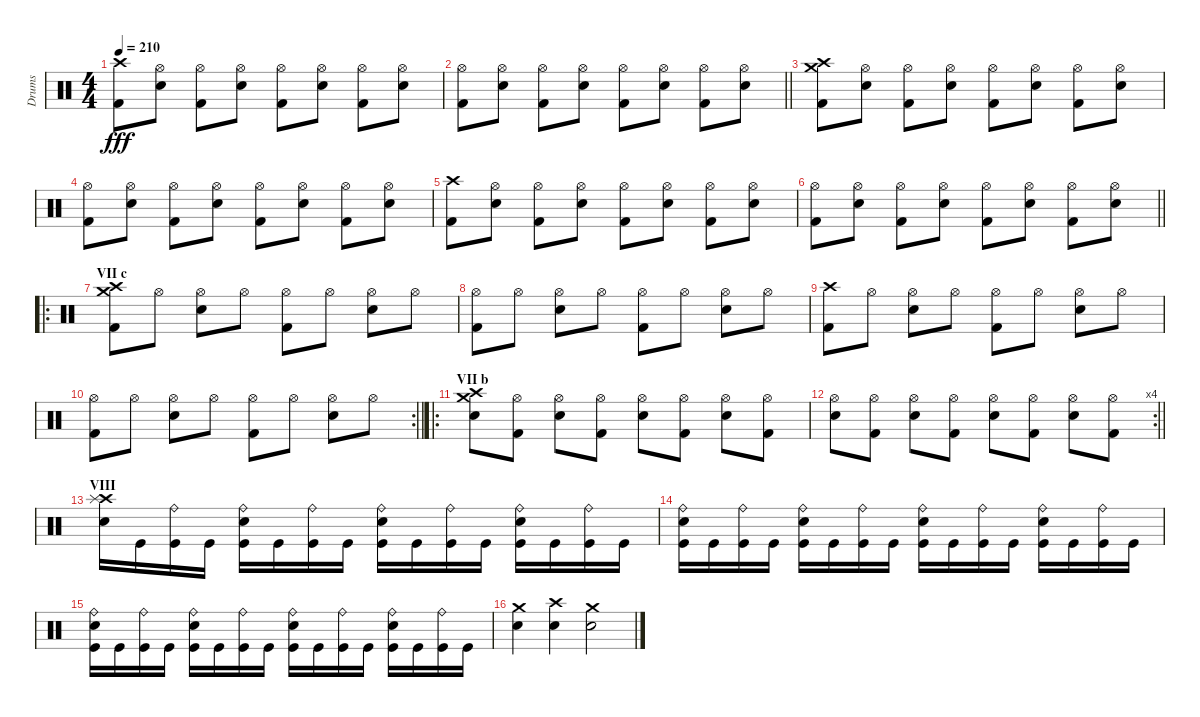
\track ("Drums" "Drums") {instrument percussion}
\staff {score}
\articulation defaults
\ts (4 4)
\tempo 210
\clef neutral
\ks c
("Crash high (hit)" "Kick (hit) 2").8{dy fff} ("Hi-Hat (open)" "Snare (hit) 2").8 ("Hi-Hat (open)" "Kick (hit) 2").8 ("Hi-Hat (open)" "Snare (hit) 2").8 ("Hi-Hat (open)" "Kick (hit) 2").8 ("Hi-Hat (open)" "Snare (hit) 2").8 ("Hi-Hat (open)" "Kick (hit) 2").8 ("Hi-Hat (open)" "Snare (hit) 2").8 |
\barLineRight lightlight
("Hi-Hat (open)" "Kick (hit) 2").8 ("Hi-Hat (open)" "Snare (hit) 2").8 ("Hi-Hat (open)" "Kick (hit) 2").8 ("Hi-Hat (open)" "Snare (hit) 2").8 ("Hi-Hat (open)" "Kick (hit) 2").8 ("Hi-Hat (open)" "Snare (hit) 2").8 ("Hi-Hat (open)" "Kick (hit) 2").8 ("Hi-Hat (open)" "Snare (hit) 2").8 |
("Crash high (hit)" "Crash medium (hit)" "Kick (hit) 2").8 ("Hi-Hat (open)" "Snare (hit) 2").8 ("Hi-Hat (open)" "Kick (hit) 2").8 ("Hi-Hat (open)" "Snare (hit) 2").8 ("Hi-Hat (open)" "Kick (hit) 2").8 ("Hi-Hat (open)" "Snare (hit) 2").8 ("Hi-Hat (open)" "Kick (hit) 2").8 ("Hi-Hat (open)" "Snare (hit) 2").8 |
("Hi-Hat (open)" "Kick (hit) 2").8 ("Hi-Hat (open)" "Snare (hit) 2").8 ("Hi-Hat (open)" "Kick (hit) 2").8 ("Hi-Hat (open)" "Snare (hit) 2").8 ("Hi-Hat (open)" "Kick (hit) 2").8 ("Hi-Hat (open)" "Snare (hit) 2").8 ("Hi-Hat (open)" "Kick (hit) 2").8 ("Hi-Hat (open)" "Snare (hit) 2").8 |
("Crash high (hit)" "Kick (hit) 2").8 ("Hi-Hat (open)" "Snare (hit) 2").8 ("Hi-Hat (open)" "Kick (hit) 2").8 ("Hi-Hat (open)" "Snare (hit) 2").8 ("Hi-Hat (open)" "Kick (hit) 2").8 ("Hi-Hat (open)" "Snare (hit) 2").8 ("Hi-Hat (open)" "Kick (hit) 2").8 ("Hi-Hat (open)" "Snare (hit) 2").8 |
\barLineRight lightlight
("Hi-Hat (open)" "Kick (hit) 2").8 ("Hi-Hat (open)" "Snare (hit) 2").8 ("Hi-Hat (open)" "Kick (hit) 2").8 ("Hi-Hat (open)" "Snare (hit) 2").8 ("Hi-Hat (open)" "Kick (hit) 2").8 ("Hi-Hat (open)" "Snare (hit) 2").8 ("Hi-Hat (open)" "Kick (hit) 2").8 ("Hi-Hat (open)" "Snare (hit) 2").8 |
\ro
\section ("" "VII c")
("Crash high (hit)" "Crash medium (hit)" "Kick (hit) 2").8 "Hi-Hat (open)".8 ("Hi-Hat (open)" "Electric Snare (hit)").8 "Hi-Hat (open)".8 ("Hi-Hat (open)" "Kick (hit) 2").8 "Hi-Hat (open)".8 ("Hi-Hat (open)" "Electric Snare (hit)").8 "Hi-Hat (open)".8 |
("Hi-Hat (open)" "Kick (hit) 2").8 "Hi-Hat (open)".8 ("Hi-Hat (open)" "Electric Snare (hit)").8 "Hi-Hat (open)".8 ("Hi-Hat (open)" "Kick (hit) 2").8 "Hi-Hat (open)".8 ("Hi-Hat (open)" "Electric Snare (hit)").8 "Hi-Hat (open)".8 |
("Crash high (hit)" "Kick (hit) 2").8 "Hi-Hat (open)".8 ("Hi-Hat (open)" "Electric Snare (hit)").8 "Hi-Hat (open)".8 ("Hi-Hat (open)" "Kick (hit) 2").8 "Hi-Hat (open)".8 ("Hi-Hat (open)" "Electric Snare (hit)").8 "Hi-Hat (open)".8 |
\rc 2
\barLineRight lightlight
("Hi-Hat (open)" "Kick (hit) 2").8 "Hi-Hat (open)".8 ("Hi-Hat (open)" "Electric Snare (hit)").8 "Hi-Hat (open)".8 ("Hi-Hat (open)" "Kick (hit) 2").8 "Hi-Hat (open)".8 ("Hi-Hat (open)" "Electric Snare (hit)").8 "Hi-Hat (open)".8 |
\ro
\section ("" "VII b")
("Crash high (hit)" "Crash medium (hit)" "Snare (hit) 2").8 ("Hi-Hat (open)" "Kick (hit) 2").8 ("Hi-Hat (open)" "Snare (hit) 2").8 ("Hi-Hat (open)" "Kick (hit) 2").8 ("Hi-Hat (open)" "Snare (hit) 2").8 ("Hi-Hat (open)" "Kick (hit) 2").8 ("Hi-Hat (open)" "Snare (hit) 2").8 ("Hi-Hat (open)" "Kick (hit) 2").8 |
\rc 4
\barLineRight lightlight
("Hi-Hat (open)" "Snare (hit) 2").8 ("Hi-Hat (open)" "Kick (hit) 2").8 ("Hi-Hat (open)" "Snare (hit) 2").8 ("Hi-Hat (open)" "Kick (hit) 2").8 ("Hi-Hat (open)" "Snare (hit) 2").8 ("Hi-Hat (open)" "Kick (hit) 2").8 ("Hi-Hat (open)" "Snare (hit) 2").8 ("Hi-Hat (open)" "Kick (hit) 2").8 |
\section ("" "VIII")
("Crash high (hit)" "Electric Snare (hit)" "Splash (hit)").16 "Kick (hit)".16 ("Kick (hit)" "Ride (bell)").16 "Kick (hit)".16 ("Kick (hit)" "Electric Snare (hit)" "Ride (bell)").16 "Kick (hit)".16 ("Kick (hit)" "Ride (bell)").16 "Kick (hit)".16 ("Kick (hit)" "Electric Snare (hit)" "Ride (bell)").16 "Kick (hit)".16 ("Kick (hit)" "Ride (bell)").16 "Kick (hit)".16 ("Kick (hit)" "Electric Snare (hit)" "Ride (bell)").16 "Kick (hit)".16 ("Kick (hit)" "Ride (bell)").16 "Kick (hit)".16 |
("Kick (hit)" "Electric Snare (hit)" "Ride (bell)").16 "Kick (hit)".16 ("Kick (hit)" "Ride (bell)").16 "Kick (hit)".16 ("Kick (hit)" "Electric Snare (hit)" "Ride (bell)").16 "Kick (hit)".16 ("Kick (hit)" "Ride (bell)").16 "Kick (hit)".16 ("Kick (hit)" "Electric Snare (hit)" "Ride (bell)").16 "Kick (hit)".16 ("Kick (hit)" "Ride (bell)").16 "Kick (hit)".16 ("Kick (hit)" "Electric Snare (hit)" "Ride (bell)").16 "Kick (hit)".16 ("Kick (hit)" "Ride (bell)").16 "Kick (hit)".16 |
("Kick (hit)" "Electric Snare (hit)" "Ride (bell)").16 "Kick (hit)".16 ("Kick (hit)" "Ride (bell)").16 "Kick (hit)".16 ("Kick (hit)" "Electric Snare (hit)" "Ride (bell)").16 "Kick (hit)".16 ("Kick (hit)" "Ride (bell)").16 "Kick (hit)".16 ("Kick (hit)" "Electric Snare (hit)" "Ride (bell)").16 "Kick (hit)".16 ("Kick (hit)" "Ride (bell)").16 "Kick (hit)".16 ("Kick (hit)" "Electric Snare (hit)" "Ride (bell)").16 "Kick (hit)".16 ("Kick (hit)" "Ride (bell)").16 "Kick (hit)".16 |
("Crash medium (hit)" "Electric Snare (hit)").4 ("Crash high (hit)" "Electric Snare (hit)").4 ("Crash medium (hit)" "Electric Snare (hit)").2
